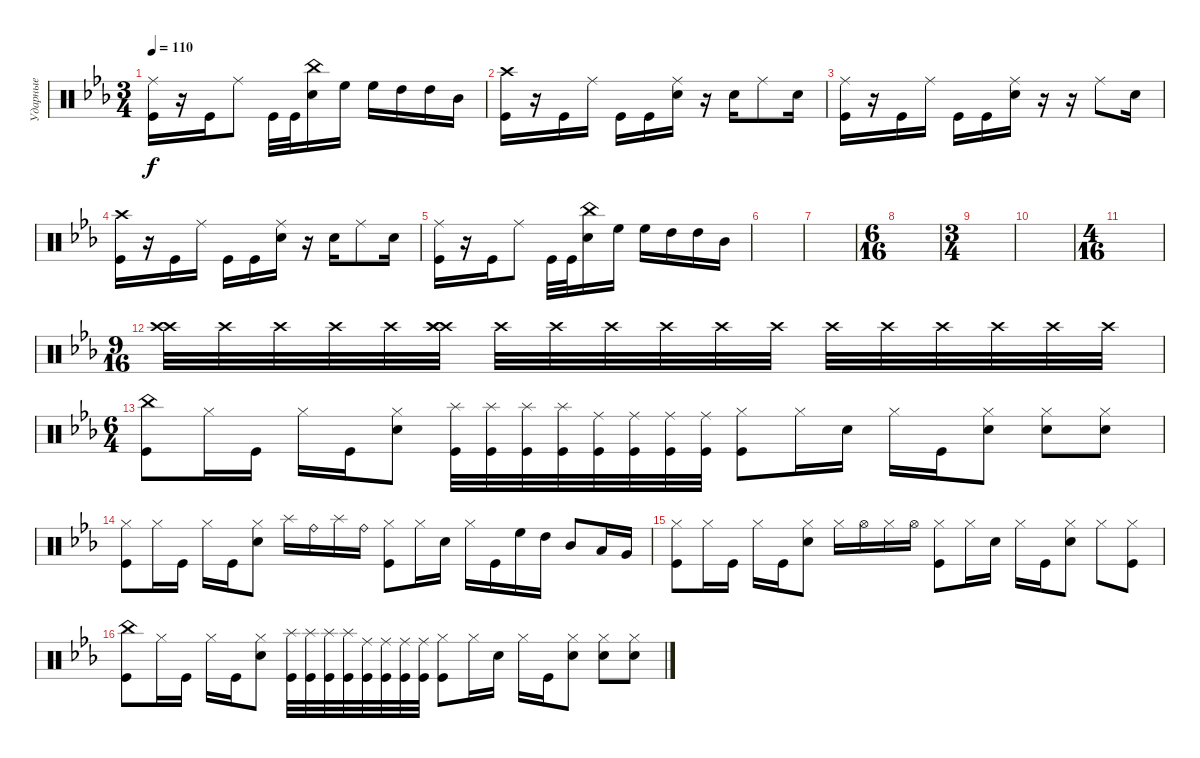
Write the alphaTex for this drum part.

\track ("Ударные" "Ударные") {instrument percussion}
\staff {score}
\articulation defaults
\ts (3 4)
\tempo 110
\clef neutral
\ks cminor
("Kick (hit)" "Ride (middle)").16{dy f} r.16 "Kick (hit)".16 "Ride (middle)".8 "Kick (hit)".32 "Kick (hit)".32 ("Snare (hit) 2" "China (hit)").16 "High Floor Tom (hit)".16 "High Floor Tom (hit)".16 "High Tom (hit)".16 "High Tom (hit)".16 "Mid Tom (hit)".16 |
("Kick (hit)" "Crash high (hit)").16 r.16 "Kick (hit)".16 "Ride (middle)".16 "Kick (hit)".16 "Kick (hit)".16 ("Snare (hit) 2" "Ride (middle)").16 r.16 "Snare (hit) 2".16 "Ride (middle)".8 "Snare (hit) 2".16 |
("Kick (hit)" "Ride (middle)").16 r.16 "Kick (hit)".16 "Ride (middle)".16 "Kick (hit)".16 "Kick (hit)".16 ("Snare (hit) 2" "Ride (middle)").16 r.16 r.16 "Ride (middle)".8 "Snare (hit) 2".16 |
("Kick (hit)" "Crash high (hit)").16 r.16 "Kick (hit)".16 "Ride (middle)".16 "Kick (hit)".16 "Kick (hit)".16 ("Snare (hit) 2" "Ride (middle)").16 r.16 "Snare (hit) 2".16 "Ride (middle)".8 "Snare (hit) 2".16 |
("Kick (hit)" "Ride (middle)").16 r.16 "Kick (hit)".16 "Ride (middle)".8 "Kick (hit)".32 "Kick (hit)".32 ("Snare (hit) 2" "China (hit)").16 "High Floor Tom (hit)".16 "High Floor Tom (hit)".16 "High Tom (hit)".16 "High Tom (hit)".16 "Mid Tom (hit)".16 |
|
|
\ts (6 16)
|
\ts (3 4)
|
|
\ts (4 16)
|
\ts (9 16)
("Crash high (hit)" "Crash high (hit)").32{volume 0} "Crash high (hit)".32 "Crash high (hit)".32{volume 13} "Crash high (hit)".32 "Crash high (hit)".32 ("Crash high (hit)" "Crash high (hit)" "Crash high (hit)").32 "Crash high (hit)".32 "Crash high (hit)".32 "Crash high (hit)".32 "Crash high (hit)".32 "Crash high (hit)".32 "Crash high (hit)".32 "Crash high (hit)".32 "Crash high (hit)".32 "Crash high (hit)".32 "Crash high (hit)".32 "Crash high (hit)".32 "Crash high (hit)".32 |
\ts (6 4)
("Kick (hit)" "China (hit)").8 "Hi-Hat (closed)".16 "Kick (hit)".16 "Hi-Hat (closed)".16 "Kick (hit)".16 ("Hi-Hat (closed)" "Snare (hit) 2").8 ("Kick (hit)" "Splash (hit)").32 ("Kick (hit)" "Splash (hit)").32 ("Kick (hit)" "Splash (hit)").32 ("Kick (hit)" "Splash (hit)").32 ("Kick (hit)" "Ride (middle)").32 ("Kick (hit)" "Ride (middle)").32 ("Kick (hit)" "Ride (middle)").32 ("Kick (hit)" "Ride (middle)").32 ("Kick (hit)" "Hi-Hat (closed)").8 "Hi-Hat (closed)".16 "Snare (hit) 2".16 "Hi-Hat (closed)".16 "Kick (hit)".16 ("Snare (hit) 2" "Hi-Hat (closed)").8 ("Hi-Hat (closed)" "Snare (hit) 2").8 ("Hi-Hat (closed)" "Snare (hit) 2").8 |
("Kick (hit)" "Hi-Hat (closed)").8 "Hi-Hat (closed)".16 "Kick (hit)".16 "Hi-Hat (closed)".16 "Kick (hit)".16 ("Hi-Hat (closed)" "Snare (hit) 2").8 "Splash (hit)".16 "Ride (bell)".16 "Splash (hit)".16 "Ride (bell)".16 ("Kick (hit)" "Hi-Hat (closed)").8 "Hi-Hat (closed)".16 "Snare (hit) 2".16 "Hi-Hat (closed)".16 "Kick (hit)".16 "High Floor Tom (hit)".16 "High Tom (hit)".16 "Mid Tom (hit)".8 "Low Tom (hit)".16 "Very Low Tom (hit)".16 |
("Kick (hit)" "Hi-Hat (closed)").8 "Hi-Hat (closed)".16 "Kick (hit)".16 "Hi-Hat (closed)".16 "Kick (hit)".16 ("Hi-Hat (closed)" "Snare (hit) 2").8 "Hi-Hat (closed)".16 "Hi-Hat (open)".16 "Hi-Hat (closed)".16 "Hi-Hat (open)".16 ("Kick (hit)" "Hi-Hat (closed)").8 "Hi-Hat (closed)".16 "Snare (hit) 2".16 "Hi-Hat (closed)".16 "Kick (hit)".16 ("Snare (hit) 2" "Hi-Hat (closed)").8 "Hi-Hat (closed)".8 ("Hi-Hat (closed)" "Kick (hit)").8 |
("Kick (hit)" "China (hit)").8 "Hi-Hat (closed)".16 "Kick (hit)".16 "Hi-Hat (closed)".16 "Kick (hit)".16 ("Hi-Hat (closed)" "Snare (hit) 2").8 ("Kick (hit)" "Splash (hit)").32 ("Kick (hit)" "Splash (hit)").32 ("Kick (hit)" "Splash (hit)").32 ("Kick (hit)" "Splash (hit)").32 ("Kick (hit)" "Ride (middle)").32 ("Kick (hit)" "Ride (middle)").32 ("Kick (hit)" "Ride (middle)").32 ("Kick (hit)" "Ride (middle)").32 ("Kick (hit)" "Hi-Hat (closed)").8 "Hi-Hat (closed)".16 "Snare (hit) 2".16 "Hi-Hat (closed)".16 "Kick (hit)".16 ("Snare (hit) 2" "Hi-Hat (closed)").8 ("Hi-Hat (closed)" "Snare (hit) 2").8 ("Hi-Hat (closed)" "Snare (hit) 2").8
